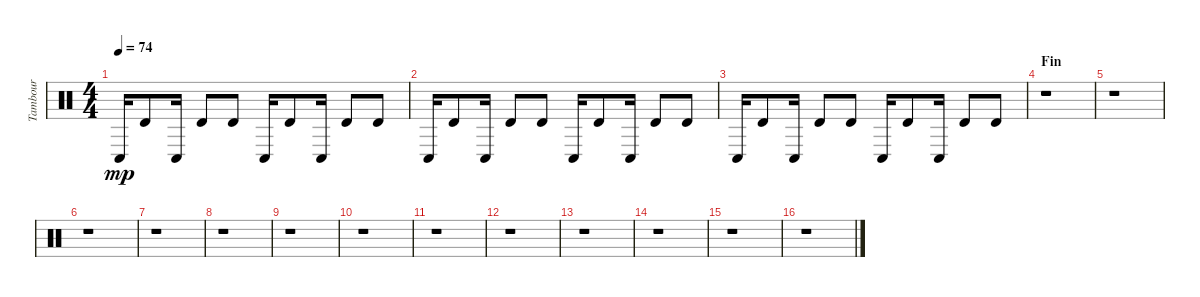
\track ("Tambour" "Tambour") {instrument percussion}
\staff {score}
\articulation defaults
\ts (4 4)
\tempo 74
\clef neutral
\ks c "Conga low (hit)".16{dy mp} "Timbale high (hit)".8 "Conga low (hit)".16 "Timbale high (hit)".8 "Timbale high (hit)".8 "Conga low (hit)".16 "Timbale high (hit)".8 "Conga low (hit)".16 "Timbale high (hit)".8 "Timbale high (hit)".8
|
"Conga low (hit)".16 "Timbale high (hit)".8 "Conga low (hit)".16 "Timbale high (hit)".8 "Timbale high (hit)".8 "Conga low (hit)".16 "Timbale high (hit)".8 "Conga low (hit)".16 "Timbale high (hit)".8 "Timbale high (hit)".8 |
"Conga low (hit)".16 "Timbale high (hit)".8 "Conga low (hit)".16 "Timbale high (hit)".8 "Timbale high (hit)".8 "Conga low (hit)".16 "Timbale high (hit)".8 "Conga low (hit)".16 "Timbale high (hit)".8 "Timbale high (hit)".8 |
\section ("" "Fin")
r.1 |
r.1 |
r.1 |
r.1 |
r.1 |
r.1 |
r.1 |
r.1 |
r.1 |
r.1 |
r.1 |
r.1 |
r.1
